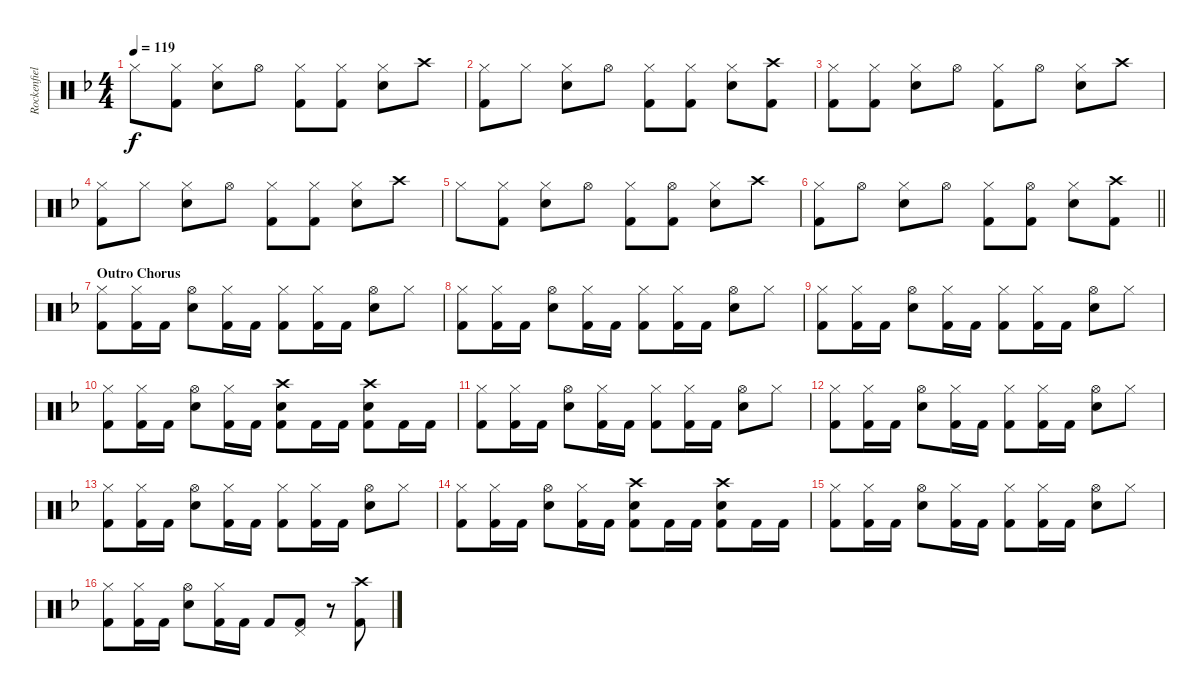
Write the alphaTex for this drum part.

\track ("Rockenfield" "Rockenfiel") {instrument percussion}
\staff {score}
\articulation defaults
\ts (4 4)
\tempo 119
\clef neutral
\ks dminor "Hi-Hat (closed)".8{dy f}
("Hi-Hat (closed)" "Kick (hit) 2").8 ("Hi-Hat (closed)" "Snare (hit) 2").8 "Hi-Hat (open)".8 ("Hi-Hat (closed)" "Kick (hit) 2").8 ("Hi-Hat (closed)" "Kick (hit) 2").8 ("Hi-Hat (closed)" "Snare (hit) 2").8 "Crash high (hit)".8 |
("Hi-Hat (closed)" "Kick (hit) 2").8 "Hi-Hat (closed)".8 ("Hi-Hat (closed)" "Snare (hit) 2").8 "Hi-Hat (open)".8 ("Hi-Hat (closed)" "Kick (hit) 2").8 ("Hi-Hat (closed)" "Kick (hit) 2").8 ("Hi-Hat (closed)" "Snare (hit) 2").8 ("Crash high (hit)" "Kick (hit) 2").8 |
("Hi-Hat (closed)" "Kick (hit) 2").8 ("Hi-Hat (closed)" "Kick (hit) 2").8 ("Hi-Hat (closed)" "Snare (hit) 2").8 "Hi-Hat (open)".8 ("Hi-Hat (closed)" "Kick (hit) 2").8 "Hi-Hat (open)".8 ("Hi-Hat (closed)" "Snare (hit) 2").8 "Crash high (hit)".8 |
("Hi-Hat (closed)" "Kick (hit) 2").8 "Hi-Hat (closed)".8 ("Hi-Hat (closed)" "Snare (hit) 2").8 "Hi-Hat (open)".8 ("Hi-Hat (closed)" "Kick (hit) 2").8 ("Hi-Hat (closed)" "Kick (hit) 2").8 ("Hi-Hat (closed)" "Snare (hit) 2").8 "Crash high (hit)".8 |
"Hi-Hat (closed)".8 ("Hi-Hat (closed)" "Kick (hit) 2").8 ("Hi-Hat (closed)" "Snare (hit) 2").8 "Hi-Hat (open)".8 ("Hi-Hat (closed)" "Kick (hit) 2").8 ("Hi-Hat (open)" "Kick (hit) 2").8 ("Hi-Hat (closed)" "Snare (hit) 2").8 "Crash high (hit)".8 |
\barLineRight lightlight
("Hi-Hat (closed)" "Kick (hit) 2").8 "Hi-Hat (open)".8 ("Hi-Hat (closed)" "Snare (hit) 2").8 "Hi-Hat (open)".8 ("Hi-Hat (closed)" "Kick (hit) 2").8 ("Hi-Hat (open)" "Kick (hit) 2").8 ("Hi-Hat (closed)" "Snare (hit) 2").8 ("Crash high (hit)" "Kick (hit) 2").8 |
\section ("" "Outro Chorus")
("Hi-Hat (closed)" "Kick (hit) 2").8 ("Hi-Hat (closed)" "Kick (hit) 2").16 "Kick (hit) 2".16 ("Hi-Hat (open)" "Snare (hit) 2").8 ("Hi-Hat (closed)" "Kick (hit) 2").16 "Kick (hit) 2".16 ("Hi-Hat (closed)" "Kick (hit) 2").8 ("Hi-Hat (closed)" "Kick (hit) 2").16 "Kick (hit) 2".16 ("Hi-Hat (open)" "Snare (hit) 2").8 "Hi-Hat (closed)".8 |
("Hi-Hat (closed)" "Kick (hit) 2").8 ("Hi-Hat (closed)" "Kick (hit) 2").16 "Kick (hit) 2".16 ("Hi-Hat (open)" "Snare (hit) 2").8 ("Hi-Hat (closed)" "Kick (hit) 2").16 "Kick (hit) 2".16 ("Hi-Hat (closed)" "Kick (hit) 2").8 ("Hi-Hat (closed)" "Kick (hit) 2").16 "Kick (hit) 2".16 ("Hi-Hat (open)" "Snare (hit) 2").8 "Hi-Hat (closed)".8 |
("Hi-Hat (closed)" "Kick (hit) 2").8 ("Hi-Hat (closed)" "Kick (hit) 2").16 "Kick (hit) 2".16 ("Hi-Hat (open)" "Snare (hit) 2").8 ("Hi-Hat (closed)" "Kick (hit) 2").16 "Kick (hit) 2".16 ("Hi-Hat (closed)" "Kick (hit) 2").8 ("Hi-Hat (closed)" "Kick (hit) 2").16 "Kick (hit) 2".16 ("Hi-Hat (open)" "Snare (hit) 2").8 "Hi-Hat (closed)".8 |
("Hi-Hat (closed)" "Kick (hit) 2").8 ("Hi-Hat (closed)" "Kick (hit) 2").16 "Kick (hit) 2".16 ("Hi-Hat (open)" "Snare (hit) 2").8 ("Hi-Hat (closed)" "Kick (hit) 2").16 "Kick (hit) 2".16 ("Crash high (hit)" "Kick (hit) 2" "Snare (hit) 2").8 "Kick (hit) 2".16 "Kick (hit) 2".16 ("Crash high (hit)" "Kick (hit) 2" "Snare (hit) 2").8 "Kick (hit) 2".16 "Kick (hit) 2".16 |
("Hi-Hat (closed)" "Kick (hit) 2").8 ("Hi-Hat (closed)" "Kick (hit) 2").16 "Kick (hit) 2".16 ("Hi-Hat (open)" "Snare (hit) 2").8 ("Hi-Hat (closed)" "Kick (hit) 2").16 "Kick (hit) 2".16 ("Hi-Hat (closed)" "Kick (hit) 2").8 ("Hi-Hat (closed)" "Kick (hit) 2").16 "Kick (hit) 2".16 ("Hi-Hat (open)" "Snare (hit) 2").8 "Hi-Hat (closed)".8 |
("Hi-Hat (closed)" "Kick (hit) 2").8 ("Hi-Hat (closed)" "Kick (hit) 2").16 "Kick (hit) 2".16 ("Hi-Hat (open)" "Snare (hit) 2").8 ("Hi-Hat (closed)" "Kick (hit) 2").16 "Kick (hit) 2".16 ("Hi-Hat (closed)" "Kick (hit) 2").8 ("Hi-Hat (closed)" "Kick (hit) 2").16 "Kick (hit) 2".16 ("Hi-Hat (open)" "Snare (hit) 2").8 "Hi-Hat (closed)".8 |
("Hi-Hat (closed)" "Kick (hit) 2").8 ("Hi-Hat (closed)" "Kick (hit) 2").16 "Kick (hit) 2".16 ("Hi-Hat (open)" "Snare (hit) 2").8 ("Hi-Hat (closed)" "Kick (hit) 2").16 "Kick (hit) 2".16 ("Hi-Hat (closed)" "Kick (hit) 2").8 ("Hi-Hat (closed)" "Kick (hit) 2").16 "Kick (hit) 2".16 ("Hi-Hat (open)" "Snare (hit) 2").8 "Hi-Hat (closed)".8 |
("Hi-Hat (closed)" "Kick (hit) 2").8 ("Hi-Hat (closed)" "Kick (hit) 2").16 "Kick (hit) 2".16 ("Hi-Hat (open)" "Snare (hit) 2").8 ("Hi-Hat (closed)" "Kick (hit) 2").16 "Kick (hit) 2".16 ("Crash high (hit)" "Kick (hit) 2" "Snare (hit) 2").8 "Kick (hit) 2".16 "Kick (hit) 2".16 ("Crash high (hit)" "Kick (hit) 2" "Snare (hit) 2").8 "Kick (hit) 2".16 "Kick (hit) 2".16 |
("Hi-Hat (closed)" "Kick (hit) 2").8 ("Hi-Hat (closed)" "Kick (hit) 2").16 "Kick (hit) 2".16 ("Hi-Hat (open)" "Snare (hit) 2").8 ("Hi-Hat (closed)" "Kick (hit) 2").16 "Kick (hit) 2".16 ("Hi-Hat (closed)" "Kick (hit) 2").8 ("Hi-Hat (closed)" "Kick (hit) 2").16 "Kick (hit) 2".16 ("Hi-Hat (open)" "Snare (hit) 2").8 "Hi-Hat (closed)".8 |
("Hi-Hat (closed)" "Kick (hit) 2").8 ("Hi-Hat (closed)" "Kick (hit) 2").16 "Kick (hit) 2".16 ("Hi-Hat (open)" "Snare (hit) 2").8 ("Hi-Hat (closed)" "Kick (hit) 2").16 "Kick (hit) 2".16 "Kick (hit) 2".8 ("Pedal Hi-Hat (hit)" "Kick (hit) 2").8 r.8 ("Crash high (hit)" "Kick (hit) 2").8
